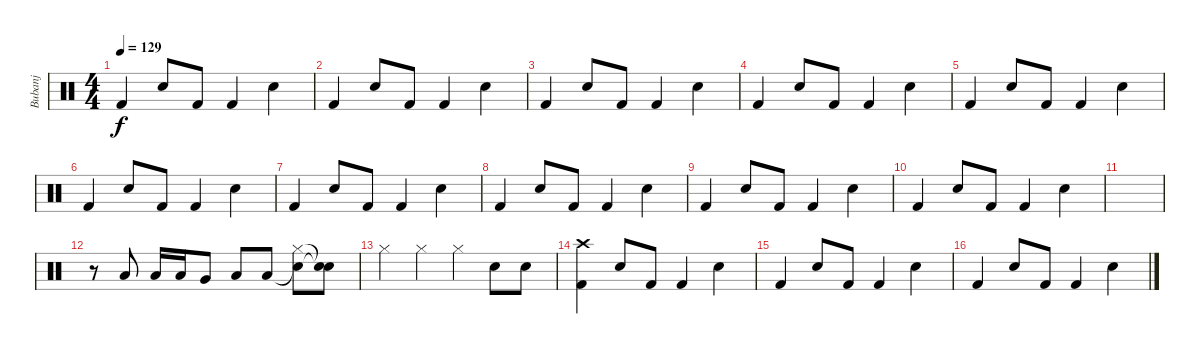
\track ("Bubanj" "Bubanj") {instrument percussion}
\staff {score}
\articulation defaults
\ts (4 4)
\tempo 129
\clef neutral
\ks c "Kick (hit) 2".4{dy f} "Electric Snare (hit)".8 "Kick (hit) 2".8 "Kick (hit) 2".4 "Electric Snare (hit)".4
|
"Kick (hit) 2".4 "Electric Snare (hit)".8 "Kick (hit) 2".8 "Kick (hit) 2".4 "Electric Snare (hit)".4 |
"Kick (hit) 2".4 "Electric Snare (hit)".8 "Kick (hit) 2".8 "Kick (hit) 2".4 "Electric Snare (hit)".4 |
"Kick (hit) 2".4 "Electric Snare (hit)".8 "Kick (hit) 2".8 "Kick (hit) 2".4 "Electric Snare (hit)".4 |
"Kick (hit) 2".4 "Electric Snare (hit)".8 "Kick (hit) 2".8 "Kick (hit) 2".4 "Electric Snare (hit)".4 |
"Kick (hit) 2".4 "Electric Snare (hit)".8 "Kick (hit) 2".8 "Kick (hit) 2".4 "Electric Snare (hit)".4 |
"Kick (hit) 2".4 "Electric Snare (hit)".8 "Kick (hit) 2".8 "Kick (hit) 2".4 "Electric Snare (hit)".4 |
"Kick (hit) 2".4 "Electric Snare (hit)".8 "Kick (hit) 2".8 "Kick (hit) 2".4 "Electric Snare (hit)".4 |
"Kick (hit) 2".4 "Electric Snare (hit)".8 "Kick (hit) 2".8 "Kick (hit) 2".4 "Electric Snare (hit)".4 |
"Kick (hit) 2".4 "Electric Snare (hit)".8 "Kick (hit) 2".8 "Kick (hit) 2".4 "Electric Snare (hit)".4 |
|
r.8 "Low Floor Tom (hit)".8 "Low Floor Tom (hit)".16 "Low Floor Tom (hit)".16 "Very Low Tom (hit)".8 "Low Floor Tom (hit)".8 "Low Floor Tom (hit)".8 ("Snare (hit)"{t} "Hi-Hat (closed)").8 ("Snare (hit)"{t} "Snare (hit)"{t}).8 |
"Hi-Hat (closed)".4 "Hi-Hat (closed)".4 "Hi-Hat (closed)".4 "Snare (hit) 2".8 "Snare (hit) 2".8 |
("Crash high (hit)" "Kick (hit) 2").4 "Electric Snare (hit)".8 "Kick (hit) 2".8 "Kick (hit) 2".4 "Electric Snare (hit)".4 |
"Kick (hit) 2".4 "Electric Snare (hit)".8 "Kick (hit) 2".8 "Kick (hit) 2".4 "Electric Snare (hit)".4 |
"Kick (hit) 2".4 "Electric Snare (hit)".8 "Kick (hit) 2".8 "Kick (hit) 2".4 "Electric Snare (hit)".4
